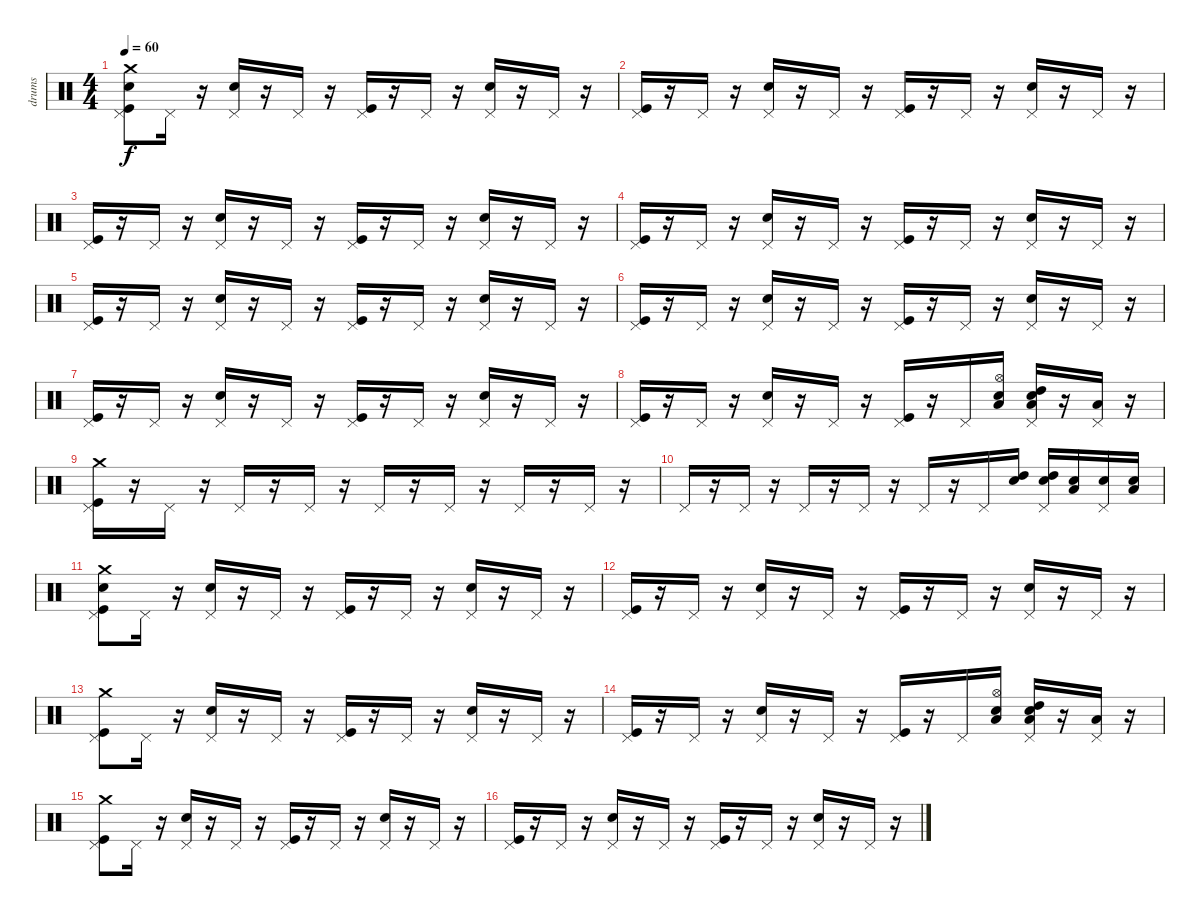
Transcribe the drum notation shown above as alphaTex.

\track ("drums" "drums") {instrument percussion}
\staff {score}
\articulation defaults
\ts (4 4)
\tempo 60
\clef neutral
\ks c
("Snare (hit)" "Kick (hit)" "Pedal Hi-Hat (hit)" "Crash medium (hit)").8{dy f} "Pedal Hi-Hat (hit)".16 r.16 ("Snare (hit) 2" "Pedal Hi-Hat (hit)").16 r.16 "Pedal Hi-Hat (hit)".16 r.16 ("Kick (hit)" "Pedal Hi-Hat (hit)").16 r.16 "Pedal Hi-Hat (hit)".16 r.16 ("Snare (hit) 2" "Pedal Hi-Hat (hit)").16 r.16 "Pedal Hi-Hat (hit)".16 r.16 |
("Kick (hit)" "Pedal Hi-Hat (hit)").16 r.16 "Pedal Hi-Hat (hit)".16 r.16 ("Snare (hit) 2" "Pedal Hi-Hat (hit)").16 r.16 "Pedal Hi-Hat (hit)".16 r.16 ("Kick (hit)" "Pedal Hi-Hat (hit)").16 r.16 "Pedal Hi-Hat (hit)".16 r.16 ("Snare (hit) 2" "Pedal Hi-Hat (hit)").16 r.16 "Pedal Hi-Hat (hit)".16 r.16 |
("Kick (hit)" "Pedal Hi-Hat (hit)").16 r.16 "Pedal Hi-Hat (hit)".16 r.16 ("Snare (hit) 2" "Pedal Hi-Hat (hit)").16 r.16 "Pedal Hi-Hat (hit)".16 r.16 ("Kick (hit)" "Pedal Hi-Hat (hit)").16 r.16 "Pedal Hi-Hat (hit)".16 r.16 ("Snare (hit) 2" "Pedal Hi-Hat (hit)").16 r.16 "Pedal Hi-Hat (hit)".16 r.16 |
("Kick (hit)" "Pedal Hi-Hat (hit)").16 r.16 "Pedal Hi-Hat (hit)".16 r.16 ("Snare (hit) 2" "Pedal Hi-Hat (hit)").16 r.16 "Pedal Hi-Hat (hit)".16 r.16 ("Kick (hit)" "Pedal Hi-Hat (hit)").16 r.16 "Pedal Hi-Hat (hit)".16 r.16 ("Snare (hit) 2" "Pedal Hi-Hat (hit)").16 r.16 "Pedal Hi-Hat (hit)".16 r.16 |
("Kick (hit)" "Pedal Hi-Hat (hit)").16 r.16 "Pedal Hi-Hat (hit)".16 r.16 ("Snare (hit) 2" "Pedal Hi-Hat (hit)").16 r.16 "Pedal Hi-Hat (hit)".16 r.16 ("Kick (hit)" "Pedal Hi-Hat (hit)").16 r.16 "Pedal Hi-Hat (hit)".16 r.16 ("Snare (hit) 2" "Pedal Hi-Hat (hit)").16 r.16 "Pedal Hi-Hat (hit)".16 r.16 |
("Kick (hit)" "Pedal Hi-Hat (hit)").16 r.16 "Pedal Hi-Hat (hit)".16 r.16 ("Snare (hit) 2" "Pedal Hi-Hat (hit)").16 r.16 "Pedal Hi-Hat (hit)".16 r.16 ("Kick (hit)" "Pedal Hi-Hat (hit)").16 r.16 "Pedal Hi-Hat (hit)".16 r.16 ("Snare (hit) 2" "Pedal Hi-Hat (hit)").16 r.16 "Pedal Hi-Hat (hit)".16 r.16 |
("Kick (hit)" "Pedal Hi-Hat (hit)").16 r.16 "Pedal Hi-Hat (hit)".16 r.16 ("Snare (hit) 2" "Pedal Hi-Hat (hit)").16 r.16 "Pedal Hi-Hat (hit)".16 r.16 ("Kick (hit)" "Pedal Hi-Hat (hit)").16 r.16 "Pedal Hi-Hat (hit)".16 r.16 ("Snare (hit) 2" "Pedal Hi-Hat (hit)").16 r.16 "Pedal Hi-Hat (hit)".16 r.16 |
("Kick (hit)" "Pedal Hi-Hat (hit)").16 r.16 "Pedal Hi-Hat (hit)".16 r.16 ("Snare (hit) 2" "Pedal Hi-Hat (hit)").16 r.16 "Pedal Hi-Hat (hit)".16 r.16 ("Kick (hit)" "Pedal Hi-Hat (hit)").16 r.16 "Pedal Hi-Hat (hit)".16 ("Snare (hit)" "Hi-Hat (open)" "Low Tom (hit)").16 ("Snare (hit)" "Pedal Hi-Hat (hit)" "High Tom (hit)" "Low Tom (hit)").16 r.16 ("Pedal Hi-Hat (hit)" "Low Floor Tom (hit)").16 r.16 |
("Pedal Hi-Hat (hit)" "Crash medium (hit)" "Kick (hit)").16 r.16 "Pedal Hi-Hat (hit)".16 r.16 "Pedal Hi-Hat (hit)".16 r.16 "Pedal Hi-Hat (hit)".16 r.16 "Pedal Hi-Hat (hit)".16 r.16 "Pedal Hi-Hat (hit)".16 r.16 "Pedal Hi-Hat (hit)".16 r.16 "Pedal Hi-Hat (hit)".16 r.16 |
"Pedal Hi-Hat (hit)".16 r.16 "Pedal Hi-Hat (hit)".16 r.16 "Pedal Hi-Hat (hit)".16 r.16 "Pedal Hi-Hat (hit)".16 r.16 "Pedal Hi-Hat (hit)".16 r.16 "Pedal Hi-Hat (hit)".16 ("Snare (hit)" "High Tom (hit)").16 ("Snare (hit)" "High Tom (hit)" "Pedal Hi-Hat (hit)").16 ("Snare (hit)" "Low Tom (hit)").16 ("Snare (hit)" "Pedal Hi-Hat (hit)").16 ("Snare (hit)" "Low Floor Tom (hit)").16 |
("Snare (hit)" "Kick (hit)" "Pedal Hi-Hat (hit)" "Crash medium (hit)").8 "Pedal Hi-Hat (hit)".16 r.16 ("Snare (hit) 2" "Pedal Hi-Hat (hit)").16 r.16 "Pedal Hi-Hat (hit)".16 r.16 ("Kick (hit)" "Pedal Hi-Hat (hit)").16 r.16 "Pedal Hi-Hat (hit)".16 r.16 ("Snare (hit) 2" "Pedal Hi-Hat (hit)").16 r.16 "Pedal Hi-Hat (hit)".16 r.16 |
("Kick (hit)" "Pedal Hi-Hat (hit)").16 r.16 "Pedal Hi-Hat (hit)".16 r.16 ("Snare (hit) 2" "Pedal Hi-Hat (hit)").16 r.16 "Pedal Hi-Hat (hit)".16 r.16 ("Kick (hit)" "Pedal Hi-Hat (hit)").16 r.16 "Pedal Hi-Hat (hit)".16 r.16 ("Snare (hit) 2" "Pedal Hi-Hat (hit)").16 r.16 "Pedal Hi-Hat (hit)".16 r.16 |
("Kick (hit)" "Pedal Hi-Hat (hit)" "Crash medium (hit)").8 "Pedal Hi-Hat (hit)".16 r.16 ("Snare (hit) 2" "Pedal Hi-Hat (hit)").16 r.16 "Pedal Hi-Hat (hit)".16 r.16 ("Kick (hit)" "Pedal Hi-Hat (hit)").16 r.16 "Pedal Hi-Hat (hit)".16 r.16 ("Snare (hit) 2" "Pedal Hi-Hat (hit)").16 r.16 "Pedal Hi-Hat (hit)".16 r.16 |
("Kick (hit)" "Pedal Hi-Hat (hit)").16 r.16 "Pedal Hi-Hat (hit)".16 r.16 ("Snare (hit) 2" "Pedal Hi-Hat (hit)").16 r.16 "Pedal Hi-Hat (hit)".16 r.16 ("Kick (hit)" "Pedal Hi-Hat (hit)").16 r.16 "Pedal Hi-Hat (hit)".16 ("Snare (hit)" "Hi-Hat (open)" "Low Tom (hit)").16 ("Snare (hit)" "Pedal Hi-Hat (hit)" "High Tom (hit)" "Low Tom (hit)").16 r.16 ("Pedal Hi-Hat (hit)" "Low Floor Tom (hit)").16 r.16 |
("Kick (hit)" "Pedal Hi-Hat (hit)" "Crash medium (hit)").8 "Pedal Hi-Hat (hit)".16 r.16 ("Snare (hit) 2" "Pedal Hi-Hat (hit)").16 r.16 "Pedal Hi-Hat (hit)".16 r.16 ("Kick (hit)" "Pedal Hi-Hat (hit)").16 r.16 "Pedal Hi-Hat (hit)".16 r.16 ("Snare (hit) 2" "Pedal Hi-Hat (hit)").16 r.16 "Pedal Hi-Hat (hit)".16 r.16 |
("Kick (hit)" "Pedal Hi-Hat (hit)").16 r.16 "Pedal Hi-Hat (hit)".16 r.16 ("Snare (hit) 2" "Pedal Hi-Hat (hit)").16 r.16 "Pedal Hi-Hat (hit)".16 r.16 ("Kick (hit)" "Pedal Hi-Hat (hit)").16 r.16 "Pedal Hi-Hat (hit)".16 r.16 ("Snare (hit) 2" "Pedal Hi-Hat (hit)").16 r.16 "Pedal Hi-Hat (hit)".16 r.16
